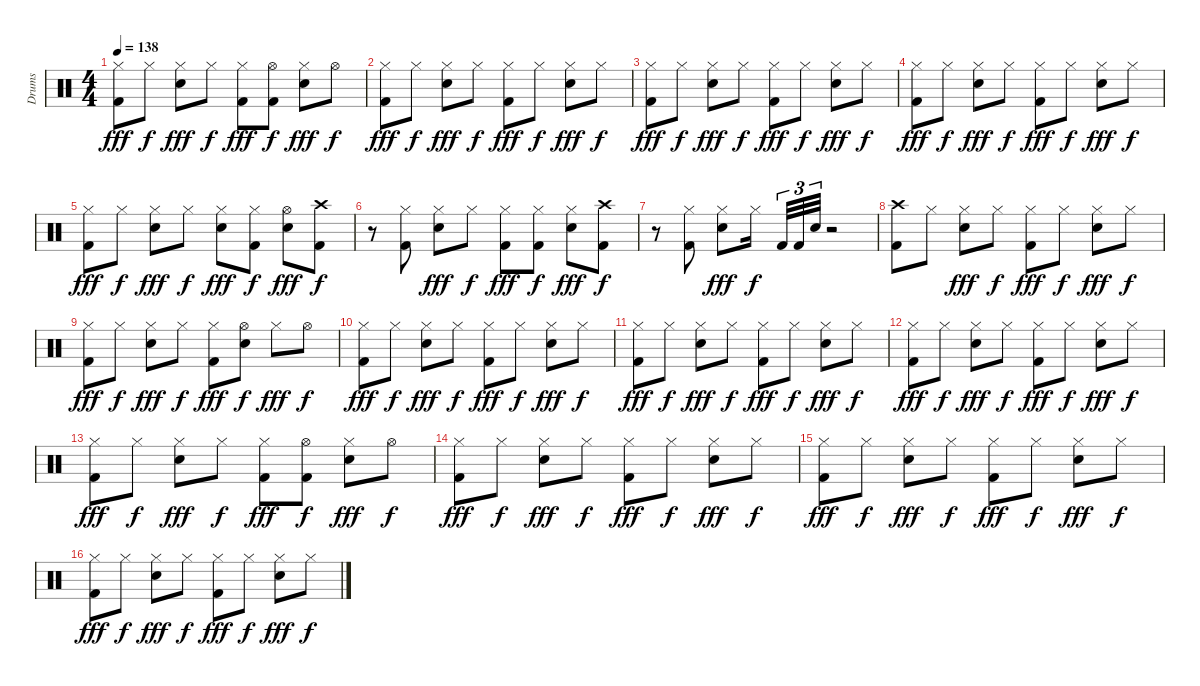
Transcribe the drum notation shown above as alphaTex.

\track ("Drums" "Drums") {instrument percussion}
\staff {score}
\articulation defaults
\ts (4 4)
\tempo 138
\clef neutral
\ks c
("Hi-Hat (closed)" "Kick (hit) 2").8{dy fff} "Hi-Hat (closed)".8{dy f} ("Hi-Hat (closed)" "Snare (hit) 2").8{dy fff} "Hi-Hat (closed)".8{dy f} ("Hi-Hat (closed)" "Kick (hit) 2").8{dy fff} ("Hi-Hat (open)" "Kick (hit) 2").8{dy f} ("Hi-Hat (closed)" "Snare (hit) 2").8{dy fff} "Hi-Hat (open)".8{dy f} |
("Hi-Hat (closed)" "Kick (hit) 2").8{dy fff} "Hi-Hat (closed)".8{dy f} ("Hi-Hat (closed)" "Snare (hit) 2").8{dy fff} "Hi-Hat (closed)".8{dy f} ("Hi-Hat (closed)" "Kick (hit) 2").8{dy fff} "Hi-Hat (closed)".8{dy f} ("Hi-Hat (closed)" "Snare (hit) 2").8{dy fff} "Hi-Hat (closed)".8{dy f} |
("Hi-Hat (closed)" "Kick (hit) 2").8{dy fff} "Hi-Hat (closed)".8{dy f} ("Hi-Hat (closed)" "Snare (hit) 2").8{dy fff} "Hi-Hat (closed)".8{dy f} ("Hi-Hat (closed)" "Kick (hit) 2").8{dy fff} "Hi-Hat (closed)".8{dy f} ("Hi-Hat (closed)" "Snare (hit) 2").8{dy fff} "Hi-Hat (closed)".8{dy f} |
("Hi-Hat (closed)" "Kick (hit) 2").8{dy fff} "Hi-Hat (closed)".8{dy f} ("Hi-Hat (closed)" "Snare (hit) 2").8{dy fff} "Hi-Hat (closed)".8{dy f} ("Hi-Hat (closed)" "Kick (hit) 2").8{dy fff} "Hi-Hat (closed)".8{dy f} ("Hi-Hat (closed)" "Snare (hit) 2").8{dy fff} "Hi-Hat (closed)".8{dy f} |
("Hi-Hat (closed)" "Kick (hit) 2").8{dy fff} "Hi-Hat (closed)".8{dy f} ("Hi-Hat (closed)" "Snare (hit) 2").8{dy fff} "Hi-Hat (closed)".8{dy f} ("Hi-Hat (closed)" "Snare (hit) 2").8{dy fff} ("Hi-Hat (closed)" "Kick (hit) 2").8{dy f} ("Hi-Hat (open)" "Snare (hit) 2").8{dy fff} ("Crash high (hit)" "Kick (hit) 2").8{dy f} |
r.8 ("Hi-Hat (closed)" "Kick (hit) 2").8 ("Hi-Hat (closed)" "Snare (hit) 2").8{dy fff} "Hi-Hat (closed)".8{dy f} ("Hi-Hat (closed)" "Kick (hit) 2").8{dy fff} ("Hi-Hat (closed)" "Kick (hit) 2").8{dy f} ("Hi-Hat (closed)" "Snare (hit) 2").8{dy fff} ("Crash high (hit)" "Kick (hit) 2").8{dy f} |
r.8 ("Hi-Hat (closed)" "Kick (hit) 2").8 ("Hi-Hat (closed)" "Snare (hit) 2").8{dy fff} "Hi-Hat (closed)".16{dy f} "Kick (hit) 2".32{tu (3 2)} "Kick (hit) 2".32{tu (3 2)} "Snare (hit) 2".32{tu (3 2)} r.2 |
("Crash high (hit)" "Kick (hit) 2").8 "Hi-Hat (closed)".8 ("Hi-Hat (closed)" "Snare (hit) 2").8{dy fff} "Hi-Hat (closed)".8{dy f} ("Hi-Hat (closed)" "Kick (hit) 2").8{dy fff} "Hi-Hat (closed)".8{dy f} ("Hi-Hat (closed)" "Snare (hit) 2").8{dy fff} "Hi-Hat (closed)".8{dy f} |
("Hi-Hat (closed)" "Kick (hit) 2").8{dy fff} "Hi-Hat (closed)".8{dy f} ("Hi-Hat (closed)" "Snare (hit) 2").8{dy fff} "Hi-Hat (closed)".8{dy f} ("Hi-Hat (closed)" "Kick (hit) 2").8{dy fff} ("Hi-Hat (open)" "Snare (hit) 2").8{dy f} "Hi-Hat (closed)".8{dy fff} "Hi-Hat (open)".8{dy f} |
("Hi-Hat (closed)" "Kick (hit) 2").8{dy fff} "Hi-Hat (closed)".8{dy f} ("Hi-Hat (closed)" "Snare (hit) 2").8{dy fff} "Hi-Hat (closed)".8{dy f} ("Hi-Hat (closed)" "Kick (hit) 2").8{dy fff} "Hi-Hat (closed)".8{dy f} ("Hi-Hat (closed)" "Snare (hit) 2").8{dy fff} "Hi-Hat (closed)".8{dy f} |
("Hi-Hat (closed)" "Kick (hit) 2").8{dy fff} "Hi-Hat (closed)".8{dy f} ("Hi-Hat (closed)" "Snare (hit) 2").8{dy fff} "Hi-Hat (closed)".8{dy f} ("Hi-Hat (closed)" "Kick (hit) 2").8{dy fff} "Hi-Hat (closed)".8{dy f} ("Hi-Hat (closed)" "Snare (hit) 2").8{dy fff} "Hi-Hat (closed)".8{dy f} |
("Hi-Hat (closed)" "Kick (hit) 2").8{dy fff} "Hi-Hat (closed)".8{dy f} ("Hi-Hat (closed)" "Snare (hit) 2").8{dy fff} "Hi-Hat (closed)".8{dy f} ("Hi-Hat (closed)" "Kick (hit) 2").8{dy fff} "Hi-Hat (closed)".8{dy f} ("Hi-Hat (closed)" "Snare (hit) 2").8{dy fff} "Hi-Hat (closed)".8{dy f} |
("Hi-Hat (closed)" "Kick (hit) 2").8{dy fff} "Hi-Hat (closed)".8{dy f} ("Hi-Hat (closed)" "Snare (hit) 2").8{dy fff} "Hi-Hat (closed)".8{dy f} ("Hi-Hat (closed)" "Kick (hit) 2").8{dy fff} ("Hi-Hat (open)" "Kick (hit) 2").8{dy f} ("Hi-Hat (closed)" "Snare (hit) 2").8{dy fff} "Hi-Hat (open)".8{dy f} |
("Hi-Hat (closed)" "Kick (hit) 2").8{dy fff} "Hi-Hat (closed)".8{dy f} ("Hi-Hat (closed)" "Snare (hit) 2").8{dy fff} "Hi-Hat (closed)".8{dy f} ("Hi-Hat (closed)" "Kick (hit) 2").8{dy fff} "Hi-Hat (closed)".8{dy f} ("Hi-Hat (closed)" "Snare (hit) 2").8{dy fff} "Hi-Hat (closed)".8{dy f} |
("Hi-Hat (closed)" "Kick (hit) 2").8{dy fff} "Hi-Hat (closed)".8{dy f} ("Hi-Hat (closed)" "Snare (hit) 2").8{dy fff} "Hi-Hat (closed)".8{dy f} ("Hi-Hat (closed)" "Kick (hit) 2").8{dy fff} "Hi-Hat (closed)".8{dy f} ("Hi-Hat (closed)" "Snare (hit) 2").8{dy fff} "Hi-Hat (closed)".8{dy f} |
("Hi-Hat (closed)" "Kick (hit) 2").8{dy fff} "Hi-Hat (closed)".8{dy f} ("Hi-Hat (closed)" "Snare (hit) 2").8{dy fff} "Hi-Hat (closed)".8{dy f} ("Hi-Hat (closed)" "Kick (hit) 2").8{dy fff} "Hi-Hat (closed)".8{dy f} ("Hi-Hat (closed)" "Snare (hit) 2").8{dy fff} "Hi-Hat (closed)".8{dy f}
